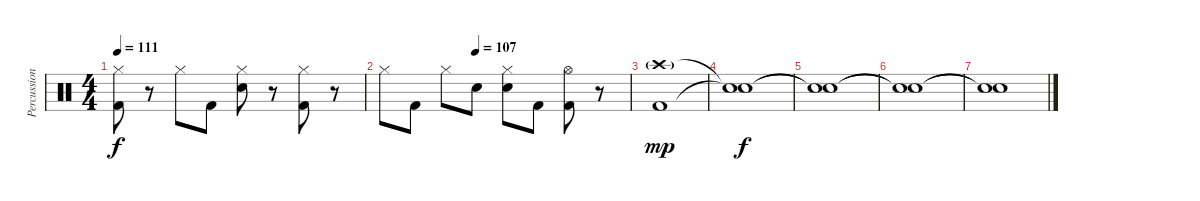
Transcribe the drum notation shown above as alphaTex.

\track ("Percussion" "Percussion") {instrument percussion}
\staff {score}
\articulation defaults
\ts (4 4)
\tempo 111
\clef neutral
\ks c
("Hi-Hat (closed)" "Kick (hit) 2").8{dy f} r.8 "Hi-Hat (closed)".8 "Kick (hit) 2".8 ("Hi-Hat (closed)" "Electric Snare (hit)").8 r.8 ("Hi-Hat (closed)" "Kick (hit) 2").8 r.8 |
\tempo (107 0.375)
"Hi-Hat (closed)".8 "Kick (hit) 2".8 "Hi-Hat (closed)".8 "Electric Snare (hit)".8 ("Hi-Hat (closed)" "Electric Snare (hit)").8 "Kick (hit) 2".8 ("Hi-Hat (open)" "Kick (hit) 2").8 r.8 |
("Crash high (hit)"{g} "Kick (hit) 2").1{dy mp} |
("Snare (hit)"{t} "Snare (hit)"{t}).1{dy f} |
("Snare (hit)"{t} "Snare (hit)"{t}).1{volume 0} |
("Snare (hit)"{t} "Snare (hit)"{t}).1 |
("Snare (hit)"{t} "Snare (hit)"{t}).1
